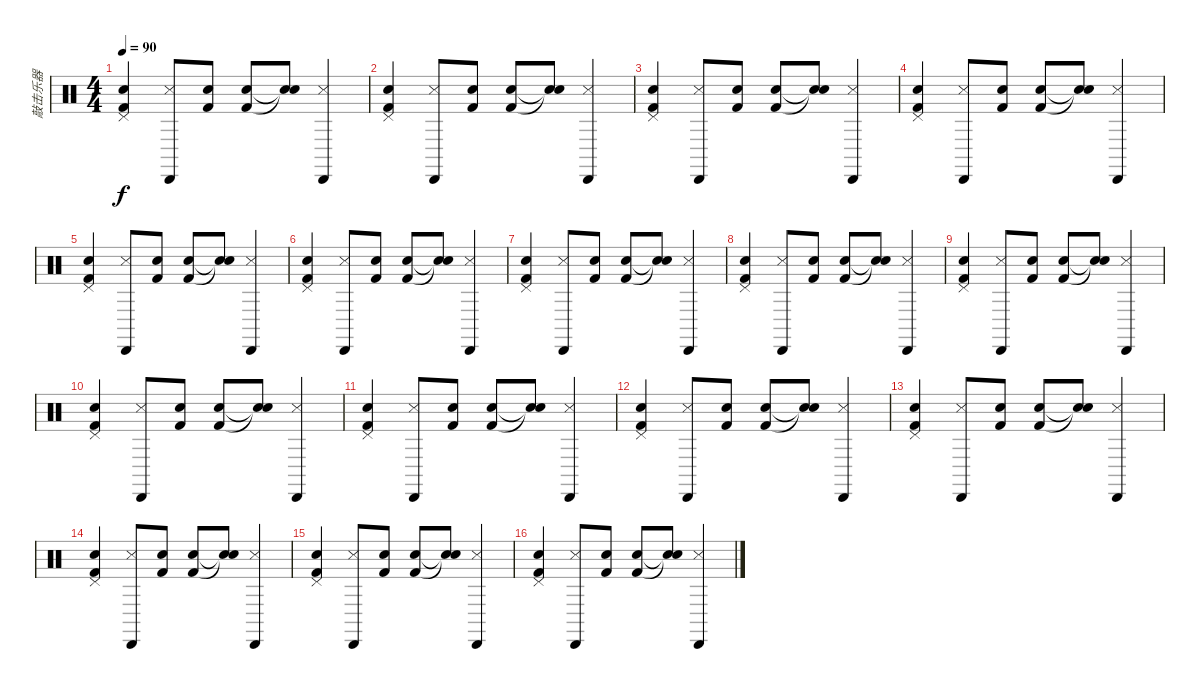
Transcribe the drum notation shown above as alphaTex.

\track ("敲击乐器" "敲击乐器") {instrument percussion}
\staff {score}
\articulation defaults
\ts (4 4)
\tempo 90
\clef neutral
\ks c
("Snare (hit) 2" "Pedal Hi-Hat (hit)" "Kick (hit) 2").4{dy f} ("Snare (side stick) 3" "Cabasa (hit)").8 ("Snare (hit) 2" "Kick (hit) 2").8 ("Snare (hit) 2" "Kick (hit) 2").8 ("Snare (hit)"{t} "Snare (hit)"{t}).8 ("Snare (side stick) 3" "Cabasa (hit)").4 |
("Snare (hit) 2" "Pedal Hi-Hat (hit)" "Kick (hit) 2").4 ("Snare (side stick) 3" "Cabasa (hit)").8 ("Snare (hit) 2" "Kick (hit) 2").8 ("Snare (hit) 2" "Kick (hit) 2").8 ("Snare (hit)"{t} "Snare (hit)"{t}).8 ("Snare (side stick) 3" "Cabasa (hit)").4 |
("Snare (hit) 2" "Pedal Hi-Hat (hit)" "Kick (hit) 2").4 ("Snare (side stick) 3" "Cabasa (hit)").8 ("Snare (hit) 2" "Kick (hit) 2").8 ("Snare (hit) 2" "Kick (hit) 2").8 ("Snare (hit)"{t} "Snare (hit)"{t}).8 ("Snare (side stick) 3" "Cabasa (hit)").4 |
("Snare (hit) 2" "Pedal Hi-Hat (hit)" "Kick (hit) 2").4 ("Snare (side stick) 3" "Cabasa (hit)").8 ("Snare (hit) 2" "Kick (hit) 2").8 ("Snare (hit) 2" "Kick (hit) 2").8 ("Snare (hit)"{t} "Snare (hit)"{t}).8 ("Snare (side stick) 3" "Cabasa (hit)").4 |
("Snare (hit) 2" "Pedal Hi-Hat (hit)" "Kick (hit) 2").4 ("Snare (side stick) 3" "Cabasa (hit)").8 ("Snare (hit) 2" "Kick (hit) 2").8 ("Snare (hit) 2" "Kick (hit) 2").8 ("Snare (hit)"{t} "Snare (hit)"{t}).8 ("Snare (side stick) 3" "Cabasa (hit)").4 |
("Snare (hit) 2" "Pedal Hi-Hat (hit)" "Kick (hit) 2").4 ("Snare (side stick) 3" "Cabasa (hit)").8 ("Snare (hit) 2" "Kick (hit) 2").8 ("Snare (hit) 2" "Kick (hit) 2").8 ("Snare (hit)"{t} "Snare (hit)"{t}).8 ("Snare (side stick) 3" "Cabasa (hit)").4 |
("Snare (hit) 2" "Pedal Hi-Hat (hit)" "Kick (hit) 2").4 ("Snare (side stick) 3" "Cabasa (hit)").8 ("Snare (hit) 2" "Kick (hit) 2").8 ("Snare (hit) 2" "Kick (hit) 2").8 ("Snare (hit)"{t} "Snare (hit)"{t}).8 ("Snare (side stick) 3" "Cabasa (hit)").4 |
("Snare (hit) 2" "Pedal Hi-Hat (hit)" "Kick (hit) 2").4 ("Snare (side stick) 3" "Cabasa (hit)").8 ("Snare (hit) 2" "Kick (hit) 2").8 ("Snare (hit) 2" "Kick (hit) 2").8 ("Snare (hit)"{t} "Snare (hit)"{t}).8 ("Snare (side stick) 3" "Cabasa (hit)").4 |
("Snare (hit) 2" "Pedal Hi-Hat (hit)" "Kick (hit) 2").4 ("Snare (side stick) 3" "Cabasa (hit)").8 ("Snare (hit) 2" "Kick (hit) 2").8 ("Snare (hit) 2" "Kick (hit) 2").8 ("Snare (hit)"{t} "Snare (hit)"{t}).8 ("Snare (side stick) 3" "Cabasa (hit)").4 |
("Snare (hit) 2" "Pedal Hi-Hat (hit)" "Kick (hit) 2").4 ("Snare (side stick) 3" "Cabasa (hit)").8 ("Snare (hit) 2" "Kick (hit) 2").8 ("Snare (hit) 2" "Kick (hit) 2").8 ("Snare (hit)"{t} "Snare (hit)"{t}).8 ("Snare (side stick) 3" "Cabasa (hit)").4 |
("Snare (hit) 2" "Pedal Hi-Hat (hit)" "Kick (hit) 2").4 ("Snare (side stick) 3" "Cabasa (hit)").8 ("Snare (hit) 2" "Kick (hit) 2").8 ("Snare (hit) 2" "Kick (hit) 2").8 ("Snare (hit)"{t} "Snare (hit)"{t}).8 ("Snare (side stick) 3" "Cabasa (hit)").4 |
("Snare (hit) 2" "Pedal Hi-Hat (hit)" "Kick (hit) 2").4 ("Snare (side stick) 3" "Cabasa (hit)").8 ("Snare (hit) 2" "Kick (hit) 2").8 ("Snare (hit) 2" "Kick (hit) 2").8 ("Snare (hit)"{t} "Snare (hit)"{t}).8 ("Snare (side stick) 3" "Cabasa (hit)").4 |
("Snare (hit) 2" "Pedal Hi-Hat (hit)" "Kick (hit) 2").4 ("Snare (side stick) 3" "Cabasa (hit)").8 ("Snare (hit) 2" "Kick (hit) 2").8 ("Snare (hit) 2" "Kick (hit) 2").8 ("Snare (hit)"{t} "Snare (hit)"{t}).8 ("Snare (side stick) 3" "Cabasa (hit)").4 |
("Snare (hit) 2" "Pedal Hi-Hat (hit)" "Kick (hit) 2").4 ("Snare (side stick) 3" "Cabasa (hit)").8 ("Snare (hit) 2" "Kick (hit) 2").8 ("Snare (hit) 2" "Kick (hit) 2").8 ("Snare (hit)"{t} "Snare (hit)"{t}).8 ("Snare (side stick) 3" "Cabasa (hit)").4 |
("Snare (hit) 2" "Pedal Hi-Hat (hit)" "Kick (hit) 2").4 ("Snare (side stick) 3" "Cabasa (hit)").8 ("Snare (hit) 2" "Kick (hit) 2").8 ("Snare (hit) 2" "Kick (hit) 2").8 ("Snare (hit)"{t} "Snare (hit)"{t}).8 ("Snare (side stick) 3" "Cabasa (hit)").4 |
("Snare (hit) 2" "Pedal Hi-Hat (hit)" "Kick (hit) 2").4 ("Snare (side stick) 3" "Cabasa (hit)").8 ("Snare (hit) 2" "Kick (hit) 2").8 ("Snare (hit) 2" "Kick (hit) 2").8 ("Snare (hit)"{t} "Snare (hit)"{t}).8 ("Snare (side stick) 3" "Cabasa (hit)").4
